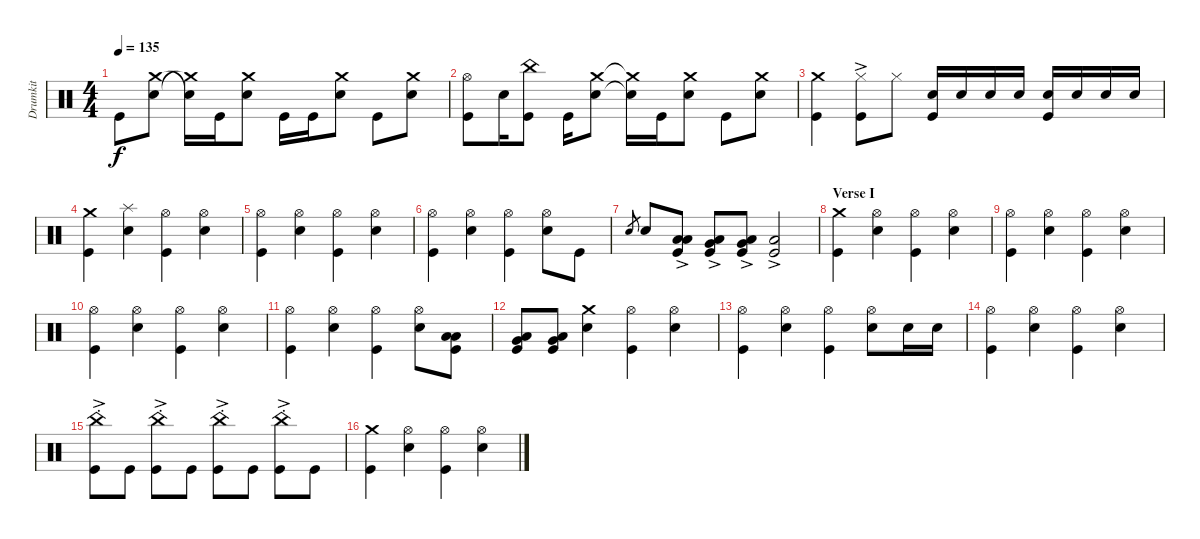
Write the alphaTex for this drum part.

\track ("Drumkit" "Drumkit") {instrument percussion}
\staff {score}
\articulation defaults
\ts (4 4)
\tempo 135
\clef neutral
\ks c "Kick (hit)".8{dy f}
("Snare (hit) 2" "Crash medium (hit)").8 ("Crash medium (hit)"{t} "Snare (hit) 2"{t}).16 "Kick (hit)".16 ("Snare (hit) 2" "Crash medium (hit)").8 "Kick (hit)".16 "Kick (hit)".16 ("Snare (hit) 2" "Crash medium (hit)").8 "Kick (hit)".8 ("Snare (hit) 2" "Crash medium (hit)").8 |
("Kick (hit)" "Hi-Hat (open)").8 "Snare (hit) 2".16 ("Kick (hit)" "China (hit)").8 "Kick (hit)".16 ("Snare (hit) 2" "Crash medium (hit)").8 ("Snare (hit) 2"{t} "Crash medium (hit)"{t}).16 "Kick (hit)".16 ("Snare (hit) 2" "Crash medium (hit)").8 "Kick (hit)".8 ("Snare (hit) 2" "Crash medium (hit)").8 |
("Crash medium (hit)" "Kick (hit)").4 ("Kick (hit)" "Hi-Hat (closed)"{ac}).8 "Hi-Hat (closed)".8 ("Snare (hit) 2" "Kick (hit)").16 "Snare (hit) 2".16 "Snare (hit) 2".16 "Snare (hit) 2".16 ("Snare (hit) 2" "Kick (hit)").16 "Snare (hit) 2".16 "Snare (hit) 2".16 "Snare (hit) 2".16 |
("Kick (hit)" "Crash medium (hit)").4 ("Snare (hit) 2" "Splash (hit)").4 ("Kick (hit)" "Hi-Hat (open)").4 ("Snare (hit) 2" "Hi-Hat (open)").4 |
("Kick (hit)" "Hi-Hat (open)").4 ("Snare (hit) 2" "Hi-Hat (open)").4 ("Hi-Hat (open)" "Kick (hit)").4 ("Hi-Hat (open)" "Snare (hit) 2").4 |
("Kick (hit)" "Hi-Hat (open)").4 ("Snare (hit) 2" "Hi-Hat (open)").4 ("Hi-Hat (open)" "Kick (hit)").4 ("Hi-Hat (open)" "Snare (hit) 2").8 "Kick (hit)".8 |
"Snare (hit)".8{gr} "Snare (hit) 2".8 ("Kick (hit)" "Low Tom (hit)"{ac} "Low Floor Tom (hit)").8 ("Kick (hit)" "Low Floor Tom (hit)" "Very Low Tom (hit)"{ac}).8 ("Kick (hit)" "Very Low Tom (hit)"{ac} "Low Floor Tom (hit)").8 ("Kick (hit)" "Low Floor Tom (hit)"{ac}).2 |
\section ("" "Verse I")
("Kick (hit)" "Crash medium (hit)").4 ("Snare (hit) 2" "Hi-Hat (open)").4 ("Kick (hit)" "Hi-Hat (open)").4 ("Snare (hit) 2" "Hi-Hat (open)").4 |
("Kick (hit)" "Hi-Hat (open)").4 ("Snare (hit) 2" "Hi-Hat (open)").4 ("Kick (hit)" "Hi-Hat (open)").4 ("Snare (hit) 2" "Hi-Hat (open)").4 |
("Kick (hit)" "Hi-Hat (open)").4 ("Snare (hit) 2" "Hi-Hat (open)").4 ("Kick (hit)" "Hi-Hat (open)").4 ("Snare (hit) 2" "Hi-Hat (open)").4 |
("Kick (hit)" "Hi-Hat (open)").4 ("Snare (hit) 2" "Hi-Hat (open)").4 ("Kick (hit)" "Hi-Hat (open)").4 ("Snare (hit) 2" "Hi-Hat (open)").8 ("Kick (hit)" "Low Tom (hit)" "Low Floor Tom (hit)").8 |
("Kick (hit)" "Very Low Tom (hit)" "Low Floor Tom (hit)").8 ("Kick (hit)" "Very Low Tom (hit)" "Low Floor Tom (hit)").8 ("Snare (hit) 2" "Crash medium (hit)").4 ("Kick (hit)" "Hi-Hat (open)").4 ("Snare (hit) 2" "Hi-Hat (open)").4 |
("Kick (hit)" "Hi-Hat (open)").4 ("Snare (hit) 2" "Hi-Hat (open)").4 ("Kick (hit)" "Hi-Hat (open)").4 ("Snare (hit) 2" "Hi-Hat (open)").8 "Snare (hit) 2".16 "Snare (hit) 2".16 |
("Kick (hit)" "Hi-Hat (open)").4 ("Snare (hit) 2" "Hi-Hat (open)").4 ("Kick (hit)" "Hi-Hat (open)").4 ("Snare (hit) 2" "Hi-Hat (open)").4 |
("Kick (hit)" "China (hit)"{ac st}).8 "Kick (hit)".8 ("Kick (hit)" "China (hit)"{ac st}).8 "Kick (hit)".8 ("Kick (hit)" "China (hit)"{ac st}).8 "Kick (hit)".8 ("Kick (hit)" "China (hit)"{ac st}).8 "Kick (hit)".8 |
("Kick (hit)" "Crash medium (hit)").4 ("Snare (hit) 2" "Hi-Hat (open)").4 ("Kick (hit)" "Hi-Hat (open)").4 ("Snare (hit) 2" "Hi-Hat (open)").4
